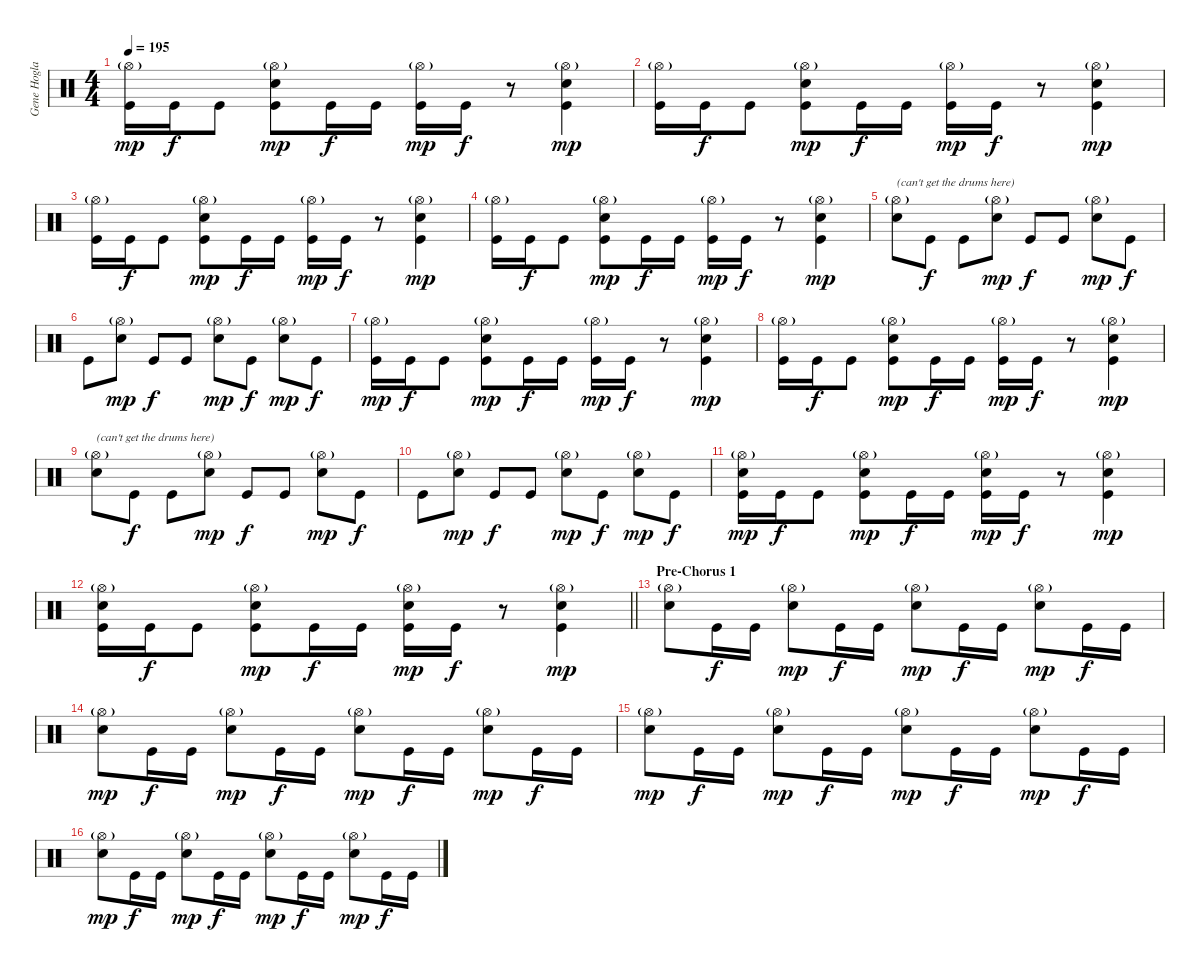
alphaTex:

\track ("Gene Hoglan" "Gene Hogla") {instrument percussion}
\staff {score}
\articulation defaults
\ts (4 4)
\tempo 195
\clef neutral
\ks c
("Hi-Hat (open)"{g} "Kick (hit)").16{dy mp} "Kick (hit)".16{dy f} "Kick (hit)".8 ("Hi-Hat (open)"{g} "Electric Snare (hit)" "Kick (hit)").8{dy mp} "Kick (hit)".16{dy f} "Kick (hit)".16 ("Hi-Hat (open)"{g} "Kick (hit)").16{dy mp} "Kick (hit)".16{dy f} r.8 ("Hi-Hat (open)"{g} "Electric Snare (hit)" "Kick (hit)").4{dy mp} |
("Hi-Hat (open)"{g} "Kick (hit)").16 "Kick (hit)".16{dy f} "Kick (hit)".8 ("Hi-Hat (open)"{g} "Electric Snare (hit)" "Kick (hit)").8{dy mp} "Kick (hit)".16{dy f} "Kick (hit)".16 ("Hi-Hat (open)"{g} "Kick (hit)").16{dy mp} "Kick (hit)".16{dy f} r.8 ("Hi-Hat (open)"{g} "Electric Snare (hit)" "Kick (hit)").4{dy mp} |
("Hi-Hat (open)"{g} "Kick (hit)").16 "Kick (hit)".16{dy f} "Kick (hit)".8 ("Hi-Hat (open)"{g} "Electric Snare (hit)" "Kick (hit)").8{dy mp} "Kick (hit)".16{dy f} "Kick (hit)".16 ("Hi-Hat (open)"{g} "Kick (hit)").16{dy mp} "Kick (hit)".16{dy f} r.8 ("Hi-Hat (open)"{g} "Electric Snare (hit)" "Kick (hit)").4{dy mp} |
("Hi-Hat (open)"{g} "Kick (hit)").16 "Kick (hit)".16{dy f} "Kick (hit)".8 ("Hi-Hat (open)"{g} "Electric Snare (hit)" "Kick (hit)").8{dy mp} "Kick (hit)".16{dy f} "Kick (hit)".16 ("Hi-Hat (open)"{g} "Kick (hit)").16{dy mp} "Kick (hit)".16{dy f} r.8 ("Hi-Hat (open)"{g} "Electric Snare (hit)" "Kick (hit)").4{dy mp} |
("Hi-Hat (open)"{g} "Electric Snare (hit)").8{txt "(can't get the drums here)"} "Kick (hit)".8{dy f} "Kick (hit)".8 ("Hi-Hat (open)"{g} "Electric Snare (hit)").8{dy mp} "Kick (hit)".8{dy f} "Kick (hit)".8 ("Hi-Hat (open)"{g} "Electric Snare (hit)").8{dy mp} "Kick (hit)".8{dy f} |
"Kick (hit)".8 ("Hi-Hat (open)"{g} "Electric Snare (hit)").8{dy mp} "Kick (hit)".8{dy f} "Kick (hit)".8 ("Hi-Hat (open)"{g} "Electric Snare (hit)").8{dy mp} "Kick (hit)".8{dy f} ("Hi-Hat (open)"{g} "Electric Snare (hit)").8{dy mp} "Kick (hit)".8{dy f} |
("Hi-Hat (open)"{g} "Kick (hit)").16{dy mp} "Kick (hit)".16{dy f} "Kick (hit)".8 ("Hi-Hat (open)"{g} "Electric Snare (hit)" "Kick (hit)").8{dy mp} "Kick (hit)".16{dy f} "Kick (hit)".16 ("Hi-Hat (open)"{g} "Kick (hit)").16{dy mp} "Kick (hit)".16{dy f} r.8 ("Hi-Hat (open)"{g} "Electric Snare (hit)" "Kick (hit)").4{dy mp} |
("Hi-Hat (open)"{g} "Kick (hit)").16 "Kick (hit)".16{dy f} "Kick (hit)".8 ("Hi-Hat (open)"{g} "Electric Snare (hit)" "Kick (hit)").8{dy mp} "Kick (hit)".16{dy f} "Kick (hit)".16 ("Hi-Hat (open)"{g} "Kick (hit)").16{dy mp} "Kick (hit)".16{dy f} r.8 ("Hi-Hat (open)"{g} "Electric Snare (hit)" "Kick (hit)").4{dy mp} |
("Hi-Hat (open)"{g} "Electric Snare (hit)").8{txt "(can't get the drums here)"} "Kick (hit)".8{dy f} "Kick (hit)".8 ("Hi-Hat (open)"{g} "Electric Snare (hit)").8{dy mp} "Kick (hit)".8{dy f} "Kick (hit)".8 ("Hi-Hat (open)"{g} "Electric Snare (hit)").8{dy mp} "Kick (hit)".8{dy f} |
"Kick (hit)".8 ("Hi-Hat (open)"{g} "Electric Snare (hit)").8{dy mp} "Kick (hit)".8{dy f} "Kick (hit)".8 ("Hi-Hat (open)"{g} "Electric Snare (hit)").8{dy mp} "Kick (hit)".8{dy f} ("Hi-Hat (open)"{g} "Electric Snare (hit)").8{dy mp} "Kick (hit)".8{dy f} |
("Hi-Hat (open)"{g} "Electric Snare (hit)" "Kick (hit)").16{dy mp} "Kick (hit)".16{dy f} "Kick (hit)".8 ("Hi-Hat (open)"{g} "Electric Snare (hit)" "Kick (hit)").8{dy mp} "Kick (hit)".16{dy f} "Kick (hit)".16 ("Hi-Hat (open)"{g} "Electric Snare (hit)" "Kick (hit)").16{dy mp} "Kick (hit)".16{dy f} r.8 ("Hi-Hat (open)"{g} "Electric Snare (hit)" "Kick (hit)").4{dy mp} |
\barLineRight lightlight
("Hi-Hat (open)"{g} "Electric Snare (hit)" "Kick (hit)").16 "Kick (hit)".16{dy f} "Kick (hit)".8 ("Hi-Hat (open)"{g} "Electric Snare (hit)" "Kick (hit)").8{dy mp} "Kick (hit)".16{dy f} "Kick (hit)".16 ("Hi-Hat (open)"{g} "Electric Snare (hit)" "Kick (hit)").16{dy mp} "Kick (hit)".16{dy f} r.8 ("Hi-Hat (open)"{g} "Electric Snare (hit)" "Kick (hit)").4{dy mp} |
\section ("" "Pre-Chorus 1")
("Hi-Hat (open)"{g} "Electric Snare (hit)").8 "Kick (hit)".16{dy f} "Kick (hit)".16 ("Hi-Hat (open)"{g} "Electric Snare (hit)").8{dy mp} "Kick (hit)".16{dy f} "Kick (hit)".16 ("Hi-Hat (open)"{g} "Electric Snare (hit)").8{dy mp} "Kick (hit)".16{dy f} "Kick (hit)".16 ("Hi-Hat (open)"{g} "Electric Snare (hit)").8{dy mp} "Kick (hit)".16{dy f} "Kick (hit)".16 |
("Hi-Hat (open)"{g} "Electric Snare (hit)").8{dy mp} "Kick (hit)".16{dy f} "Kick (hit)".16 ("Hi-Hat (open)"{g} "Electric Snare (hit)").8{dy mp} "Kick (hit)".16{dy f} "Kick (hit)".16 ("Hi-Hat (open)"{g} "Electric Snare (hit)").8{dy mp} "Kick (hit)".16{dy f} "Kick (hit)".16 ("Hi-Hat (open)"{g} "Electric Snare (hit)").8{dy mp} "Kick (hit)".16{dy f} "Kick (hit)".16 |
("Hi-Hat (open)"{g} "Electric Snare (hit)").8{dy mp} "Kick (hit)".16{dy f} "Kick (hit)".16 ("Hi-Hat (open)"{g} "Electric Snare (hit)").8{dy mp} "Kick (hit)".16{dy f} "Kick (hit)".16 ("Hi-Hat (open)"{g} "Electric Snare (hit)").8{dy mp} "Kick (hit)".16{dy f} "Kick (hit)".16 ("Hi-Hat (open)"{g} "Electric Snare (hit)").8{dy mp} "Kick (hit)".16{dy f} "Kick (hit)".16 |
("Hi-Hat (open)"{g} "Electric Snare (hit)").8{dy mp} "Kick (hit)".16{dy f} "Kick (hit)".16 ("Hi-Hat (open)"{g} "Electric Snare (hit)").8{dy mp} "Kick (hit)".16{dy f} "Kick (hit)".16 ("Hi-Hat (open)"{g} "Electric Snare (hit)").8{dy mp} "Kick (hit)".16{dy f} "Kick (hit)".16 ("Hi-Hat (open)"{g} "Electric Snare (hit)").8{dy mp} "Kick (hit)".16{dy f} "Kick (hit)".16
